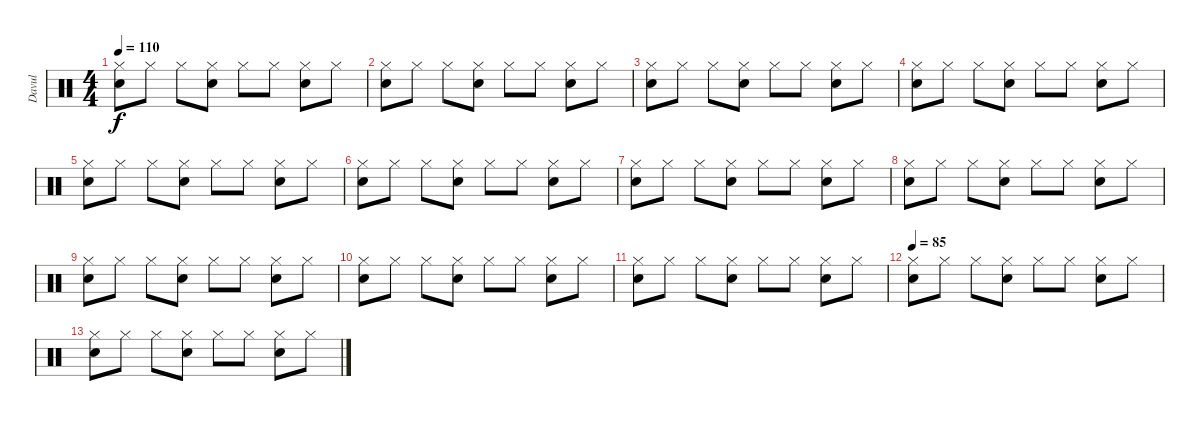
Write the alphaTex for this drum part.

\track ("Davul" "Davul") {instrument percussion}
\staff {score}
\articulation defaults
\ts (4 4)
\tempo 110
\clef neutral
\ks c
("Electric Snare (hit)" "Hi-Hat (closed)").8{dy f} "Hi-Hat (closed)".8 "Hi-Hat (closed)".8 ("Electric Snare (hit)" "Hi-Hat (closed)").8 "Hi-Hat (closed)".8 "Hi-Hat (closed)".8 ("Electric Snare (hit)" "Hi-Hat (closed)").8 "Hi-Hat (closed)".8 |
("Electric Snare (hit)" "Hi-Hat (closed)").8 "Hi-Hat (closed)".8 "Hi-Hat (closed)".8 ("Electric Snare (hit)" "Hi-Hat (closed)").8 "Hi-Hat (closed)".8 "Hi-Hat (closed)".8 ("Electric Snare (hit)" "Hi-Hat (closed)").8 "Hi-Hat (closed)".8 |
("Electric Snare (hit)" "Hi-Hat (closed)").8 "Hi-Hat (closed)".8 "Hi-Hat (closed)".8 ("Electric Snare (hit)" "Hi-Hat (closed)").8 "Hi-Hat (closed)".8 "Hi-Hat (closed)".8 ("Electric Snare (hit)" "Hi-Hat (closed)").8 "Hi-Hat (closed)".8 |
("Electric Snare (hit)" "Hi-Hat (closed)").8 "Hi-Hat (closed)".8 "Hi-Hat (closed)".8 ("Electric Snare (hit)" "Hi-Hat (closed)").8 "Hi-Hat (closed)".8 "Hi-Hat (closed)".8 ("Electric Snare (hit)" "Hi-Hat (closed)").8 "Hi-Hat (closed)".8 |
("Electric Snare (hit)" "Hi-Hat (closed)").8 "Hi-Hat (closed)".8 "Hi-Hat (closed)".8 ("Electric Snare (hit)" "Hi-Hat (closed)").8 "Hi-Hat (closed)".8 "Hi-Hat (closed)".8 ("Electric Snare (hit)" "Hi-Hat (closed)").8 "Hi-Hat (closed)".8 |
("Electric Snare (hit)" "Hi-Hat (closed)").8 "Hi-Hat (closed)".8 "Hi-Hat (closed)".8 ("Electric Snare (hit)" "Hi-Hat (closed)").8 "Hi-Hat (closed)".8 "Hi-Hat (closed)".8 ("Electric Snare (hit)" "Hi-Hat (closed)").8 "Hi-Hat (closed)".8 |
("Electric Snare (hit)" "Hi-Hat (closed)").8 "Hi-Hat (closed)".8 "Hi-Hat (closed)".8 ("Electric Snare (hit)" "Hi-Hat (closed)").8 "Hi-Hat (closed)".8 "Hi-Hat (closed)".8 ("Electric Snare (hit)" "Hi-Hat (closed)").8 "Hi-Hat (closed)".8 |
("Electric Snare (hit)" "Hi-Hat (closed)").8 "Hi-Hat (closed)".8 "Hi-Hat (closed)".8 ("Electric Snare (hit)" "Hi-Hat (closed)").8 "Hi-Hat (closed)".8 "Hi-Hat (closed)".8 ("Electric Snare (hit)" "Hi-Hat (closed)").8 "Hi-Hat (closed)".8 |
("Electric Snare (hit)" "Hi-Hat (closed)").8 "Hi-Hat (closed)".8 "Hi-Hat (closed)".8 ("Electric Snare (hit)" "Hi-Hat (closed)").8 "Hi-Hat (closed)".8 "Hi-Hat (closed)".8 ("Electric Snare (hit)" "Hi-Hat (closed)").8 "Hi-Hat (closed)".8 |
("Electric Snare (hit)" "Hi-Hat (closed)").8 "Hi-Hat (closed)".8 "Hi-Hat (closed)".8 ("Electric Snare (hit)" "Hi-Hat (closed)").8 "Hi-Hat (closed)".8 "Hi-Hat (closed)".8 ("Electric Snare (hit)" "Hi-Hat (closed)").8 "Hi-Hat (closed)".8 |
("Electric Snare (hit)" "Hi-Hat (closed)").8 "Hi-Hat (closed)".8 "Hi-Hat (closed)".8 ("Electric Snare (hit)" "Hi-Hat (closed)").8 "Hi-Hat (closed)".8 "Hi-Hat (closed)".8 ("Electric Snare (hit)" "Hi-Hat (closed)").8 "Hi-Hat (closed)".8 |
\tempo 85
("Electric Snare (hit)" "Hi-Hat (closed)").8 "Hi-Hat (closed)".8 "Hi-Hat (closed)".8 ("Electric Snare (hit)" "Hi-Hat (closed)").8 "Hi-Hat (closed)".8 "Hi-Hat (closed)".8 ("Electric Snare (hit)" "Hi-Hat (closed)").8 "Hi-Hat (closed)".8 |
("Electric Snare (hit)" "Hi-Hat (closed)").8 "Hi-Hat (closed)".8 "Hi-Hat (closed)".8 ("Electric Snare (hit)" "Hi-Hat (closed)").8 "Hi-Hat (closed)".8 "Hi-Hat (closed)".8 ("Electric Snare (hit)" "Hi-Hat (closed)").8 "Hi-Hat (closed)".8
